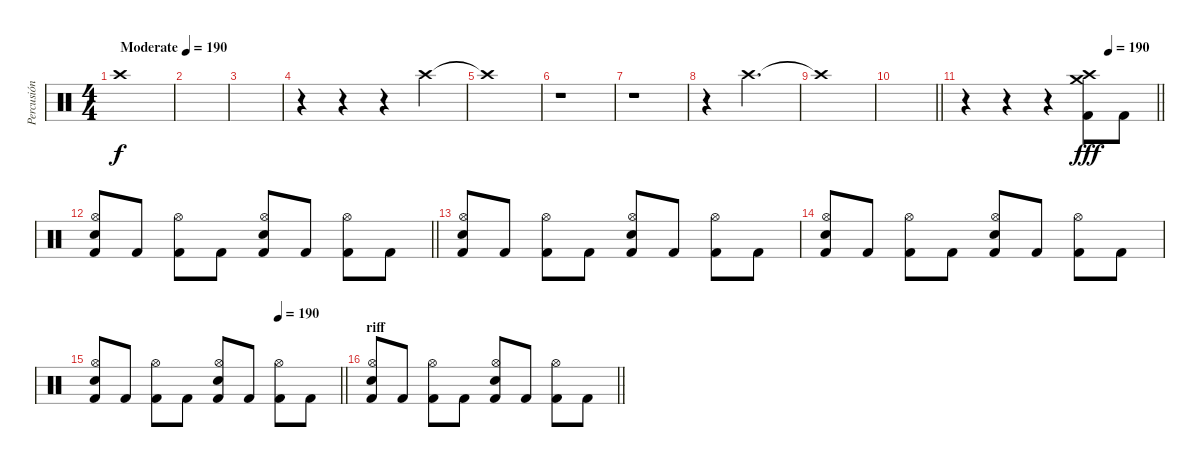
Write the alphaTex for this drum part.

\track ("Percusión" "Percusión") {instrument percussion}
\staff {score}
\articulation defaults
\ts (4 4)
\tempo (190 "Moderate")
\tempo 168
\tempo (190 "Moderate")
\clef neutral
\ks c "Crash high (hit)".1{dy f}
|
|
|
r.4 r.4 r.4 "Crash high (hit)".4 |
"Crash high (hit)"{t}.1 |
r.1 |
r.1 |
r.4 "Crash high (hit)".2{d} |
"Crash high (hit)"{t}.1 |
\barLineRight lightlight
|
\section ("" "")
\tempo (190 0.75)
\barLineRight lightlight
r.4 r.4 r.4 ("Crash high (hit)" "Crash medium (hit)" "Kick (hit) 2").8{dy fff} "Kick (hit) 2".8 |
\barLineRight lightlight
("Hi-Hat (open)" "Electric Snare (hit)" "Kick (hit) 2").8 "Kick (hit) 2".8 ("Hi-Hat (open)" "Kick (hit) 2").8 "Kick (hit) 2".8 ("Hi-Hat (open)" "Electric Snare (hit)" "Kick (hit) 2").8 "Kick (hit) 2".8 ("Hi-Hat (open)" "Kick (hit) 2").8 "Kick (hit) 2".8 |
\section ("" "")
("Hi-Hat (open)" "Electric Snare (hit)" "Kick (hit) 2").8 "Kick (hit) 2".8 ("Hi-Hat (open)" "Kick (hit) 2").8 "Kick (hit) 2".8 ("Hi-Hat (open)" "Electric Snare (hit)" "Kick (hit) 2").8 "Kick (hit) 2".8 ("Hi-Hat (open)" "Kick (hit) 2").8 "Kick (hit) 2".8 |
("Hi-Hat (open)" "Electric Snare (hit)" "Kick (hit) 2").8 "Kick (hit) 2".8 ("Hi-Hat (open)" "Kick (hit) 2").8 "Kick (hit) 2".8 ("Hi-Hat (open)" "Electric Snare (hit)" "Kick (hit) 2").8 "Kick (hit) 2".8 ("Hi-Hat (open)" "Kick (hit) 2").8 "Kick (hit) 2".8 |
\tempo (190 0.75)
\barLineRight lightlight
("Hi-Hat (open)" "Electric Snare (hit)" "Kick (hit) 2").8 "Kick (hit) 2".8 ("Hi-Hat (open)" "Kick (hit) 2").8 "Kick (hit) 2".8 ("Hi-Hat (open)" "Electric Snare (hit)" "Kick (hit) 2").8 "Kick (hit) 2".8 ("Hi-Hat (open)" "Kick (hit) 2").8 "Kick (hit) 2".8 |
\section ("" "riff")
\barLineRight lightlight
("Hi-Hat (open)" "Electric Snare (hit)" "Kick (hit) 2").8 "Kick (hit) 2".8 ("Hi-Hat (open)" "Kick (hit) 2").8 "Kick (hit) 2".8 ("Hi-Hat (open)" "Electric Snare (hit)" "Kick (hit) 2").8 "Kick (hit) 2".8 ("Hi-Hat (open)" "Kick (hit) 2").8 "Kick (hit) 2".8
